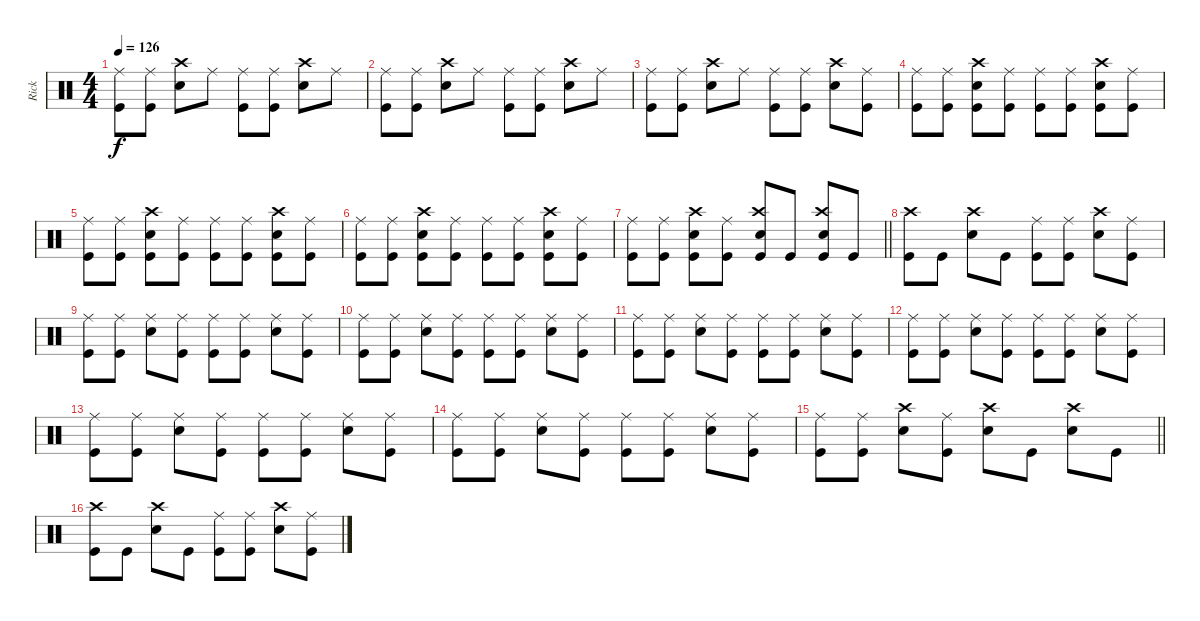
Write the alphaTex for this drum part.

\track ("Rick" "Rick") {instrument percussion}
\staff {score}
\articulation defaults
\ts (4 4)
\tempo 126
\clef neutral
\ks aminor
("Ride (middle)" "Kick (hit)").8{dy f} ("Ride (middle)" "Kick (hit)").8 ("Crash high (hit)" "Snare (hit) 2").8 "Ride (middle)".8 ("Ride (middle)" "Kick (hit)").8 ("Ride (middle)" "Kick (hit)").8 ("Crash high (hit)" "Snare (hit) 2").8 "Ride (middle)".8 |
("Ride (middle)" "Kick (hit)").8 ("Ride (middle)" "Kick (hit)").8 ("Crash high (hit)" "Snare (hit) 2").8 "Ride (middle)".8 ("Ride (middle)" "Kick (hit)").8 ("Ride (middle)" "Kick (hit)").8 ("Crash high (hit)" "Snare (hit) 2").8 "Ride (middle)".8 |
("Ride (middle)" "Kick (hit)").8 ("Ride (middle)" "Kick (hit)").8 ("Crash high (hit)" "Snare (hit) 2").8 "Ride (middle)".8 ("Ride (middle)" "Kick (hit)").8 ("Ride (middle)" "Kick (hit)").8 ("Crash high (hit)" "Snare (hit) 2").8 ("Ride (middle)" "Kick (hit)").8 |
("Ride (middle)" "Kick (hit)").8 ("Ride (middle)" "Kick (hit)").8 ("Crash high (hit)" "Snare (hit) 2" "Kick (hit)").8 ("Ride (middle)" "Kick (hit)").8 ("Ride (middle)" "Kick (hit)").8 ("Ride (middle)" "Kick (hit)").8 ("Crash high (hit)" "Snare (hit) 2" "Kick (hit)").8 ("Ride (middle)" "Kick (hit)").8 |
("Ride (middle)" "Kick (hit)").8 ("Ride (middle)" "Kick (hit)").8 ("Crash high (hit)" "Snare (hit) 2" "Kick (hit)").8 ("Ride (middle)" "Kick (hit)").8 ("Ride (middle)" "Kick (hit)").8 ("Ride (middle)" "Kick (hit)").8 ("Crash high (hit)" "Snare (hit) 2" "Kick (hit)").8 ("Ride (middle)" "Kick (hit)").8 |
("Ride (middle)" "Kick (hit)").8 ("Ride (middle)" "Kick (hit)").8 ("Crash high (hit)" "Snare (hit) 2" "Kick (hit)").8 ("Ride (middle)" "Kick (hit)").8 ("Ride (middle)" "Kick (hit)").8 ("Ride (middle)" "Kick (hit)").8 ("Crash high (hit)" "Snare (hit) 2" "Kick (hit)").8 ("Ride (middle)" "Kick (hit)").8 |
\barLineRight lightlight
("Ride (middle)" "Kick (hit)").8 ("Ride (middle)" "Kick (hit)").8 ("Crash high (hit)" "Snare (hit) 2" "Kick (hit)").8 ("Ride (middle)" "Kick (hit)").8 ("Crash high (hit)" "Snare (hit) 2" "Kick (hit)").8 "Kick (hit)".8 ("Crash high (hit)" "Snare (hit) 2" "Kick (hit)").8 "Kick (hit)".8 |
("Crash high (hit)" "Kick (hit)").8 "Kick (hit)".8 ("Crash high (hit)" "Snare (hit) 2").8 "Kick (hit)".8 ("Ride (middle)" "Kick (hit)").8 ("Ride (middle)" "Kick (hit)").8 ("Crash high (hit)" "Snare (hit) 2").8 ("Ride (middle)" "Kick (hit)").8 |
("Ride (middle)" "Kick (hit)").8 ("Ride (middle)" "Kick (hit)").8 ("Ride (middle)" "Snare (hit) 2").8 ("Ride (middle)" "Kick (hit)").8 ("Ride (middle)" "Kick (hit)").8 ("Ride (middle)" "Kick (hit)").8 ("Ride (middle)" "Snare (hit) 2").8 ("Ride (middle)" "Kick (hit)").8 |
("Ride (middle)" "Kick (hit)").8 ("Ride (middle)" "Kick (hit)").8 ("Ride (middle)" "Snare (hit) 2").8 ("Ride (middle)" "Kick (hit)").8 ("Ride (middle)" "Kick (hit)").8 ("Ride (middle)" "Kick (hit)").8 ("Ride (middle)" "Snare (hit) 2").8 ("Ride (middle)" "Kick (hit)").8 |
("Ride (middle)" "Kick (hit)").8 ("Ride (middle)" "Kick (hit)").8 ("Ride (middle)" "Snare (hit) 2").8 ("Ride (middle)" "Kick (hit)").8 ("Ride (middle)" "Kick (hit)").8 ("Ride (middle)" "Kick (hit)").8 ("Ride (middle)" "Snare (hit) 2").8 ("Ride (middle)" "Kick (hit)").8 |
("Ride (middle)" "Kick (hit)").8 ("Ride (middle)" "Kick (hit)").8 ("Ride (middle)" "Snare (hit) 2").8 ("Ride (middle)" "Kick (hit)").8 ("Ride (middle)" "Kick (hit)").8 ("Ride (middle)" "Kick (hit)").8 ("Ride (middle)" "Snare (hit) 2").8 ("Ride (middle)" "Kick (hit)").8 |
("Ride (middle)" "Kick (hit)").8 ("Ride (middle)" "Kick (hit)").8 ("Ride (middle)" "Snare (hit) 2").8 ("Ride (middle)" "Kick (hit)").8 ("Ride (middle)" "Kick (hit)").8 ("Ride (middle)" "Kick (hit)").8 ("Ride (middle)" "Snare (hit) 2").8 ("Ride (middle)" "Kick (hit)").8 |
("Ride (middle)" "Kick (hit)").8 ("Ride (middle)" "Kick (hit)").8 ("Ride (middle)" "Snare (hit) 2").8 ("Ride (middle)" "Kick (hit)").8 ("Ride (middle)" "Kick (hit)").8 ("Ride (middle)" "Kick (hit)").8 ("Ride (middle)" "Snare (hit) 2").8 ("Ride (middle)" "Kick (hit)").8 |
\barLineRight lightlight
("Ride (middle)" "Kick (hit)").8 ("Ride (middle)" "Kick (hit)").8 ("Crash high (hit)" "Snare (hit) 2").8 ("Ride (middle)" "Kick (hit)").8 ("Crash high (hit)" "Snare (hit) 2").8 "Kick (hit)".8 ("Crash high (hit)" "Snare (hit) 2").8 "Kick (hit)".8 |
("Crash high (hit)" "Kick (hit)").8 "Kick (hit)".8 ("Crash high (hit)" "Snare (hit) 2").8 "Kick (hit)".8 ("Ride (middle)" "Kick (hit)").8 ("Ride (middle)" "Kick (hit)").8 ("Crash high (hit)" "Snare (hit) 2").8 ("Ride (middle)" "Kick (hit)").8
